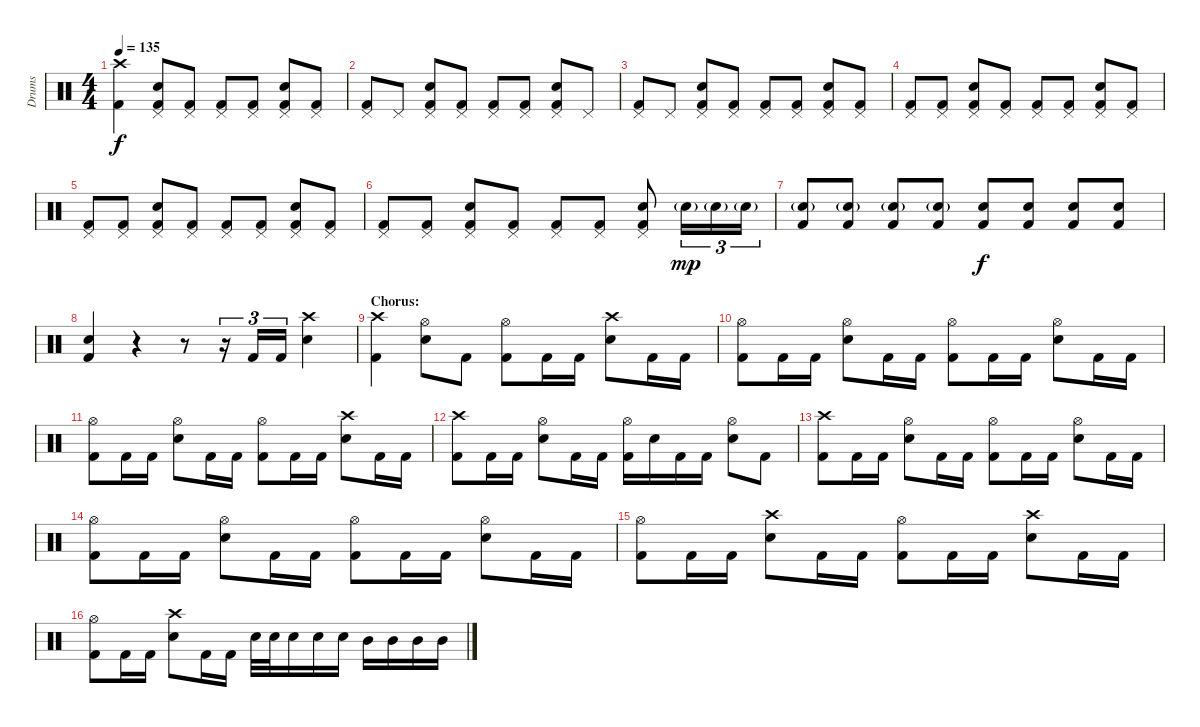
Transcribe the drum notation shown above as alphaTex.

\track ("Drums" "Drums") {instrument percussion}
\staff {score}
\articulation defaults
\ts (4 4)
\tempo 135
\clef neutral
\ks c
("Crash high (hit)" "Kick (hit) 2").4{dy f} ("Pedal Hi-Hat (hit)" "Electric Snare (hit)" "Kick (hit) 2").8 ("Pedal Hi-Hat (hit)" "Kick (hit) 2").8 ("Pedal Hi-Hat (hit)" "Kick (hit) 2").8 ("Pedal Hi-Hat (hit)" "Kick (hit) 2").8 ("Pedal Hi-Hat (hit)" "Electric Snare (hit)" "Kick (hit) 2").8 ("Pedal Hi-Hat (hit)" "Kick (hit) 2").8 |
("Pedal Hi-Hat (hit)" "Kick (hit) 2").8 "Pedal Hi-Hat (hit)".8 ("Pedal Hi-Hat (hit)" "Electric Snare (hit)" "Kick (hit) 2").8 ("Pedal Hi-Hat (hit)" "Kick (hit) 2").8 ("Pedal Hi-Hat (hit)" "Kick (hit) 2").8 ("Pedal Hi-Hat (hit)" "Kick (hit) 2").8 ("Pedal Hi-Hat (hit)" "Electric Snare (hit)" "Kick (hit) 2").8 "Pedal Hi-Hat (hit)".8 |
("Pedal Hi-Hat (hit)" "Kick (hit) 2").8 "Pedal Hi-Hat (hit)".8 ("Pedal Hi-Hat (hit)" "Electric Snare (hit)" "Kick (hit) 2").8 ("Pedal Hi-Hat (hit)" "Kick (hit) 2").8 ("Pedal Hi-Hat (hit)" "Kick (hit) 2").8 ("Pedal Hi-Hat (hit)" "Kick (hit) 2").8 ("Pedal Hi-Hat (hit)" "Electric Snare (hit)" "Kick (hit) 2").8 ("Pedal Hi-Hat (hit)" "Kick (hit) 2").8 |
("Pedal Hi-Hat (hit)" "Kick (hit) 2").8 ("Pedal Hi-Hat (hit)" "Kick (hit) 2").8 ("Pedal Hi-Hat (hit)" "Electric Snare (hit)" "Kick (hit) 2").8 ("Pedal Hi-Hat (hit)" "Kick (hit) 2").8 ("Pedal Hi-Hat (hit)" "Kick (hit) 2").8 ("Pedal Hi-Hat (hit)" "Kick (hit) 2").8 ("Pedal Hi-Hat (hit)" "Electric Snare (hit)" "Kick (hit) 2").8 ("Pedal Hi-Hat (hit)" "Kick (hit) 2").8 |
("Pedal Hi-Hat (hit)" "Kick (hit) 2").8 ("Pedal Hi-Hat (hit)" "Kick (hit) 2").8 ("Pedal Hi-Hat (hit)" "Electric Snare (hit)" "Kick (hit) 2").8 ("Pedal Hi-Hat (hit)" "Kick (hit) 2").8 ("Pedal Hi-Hat (hit)" "Kick (hit) 2").8 ("Pedal Hi-Hat (hit)" "Kick (hit) 2").8 ("Pedal Hi-Hat (hit)" "Electric Snare (hit)" "Kick (hit) 2").8 ("Pedal Hi-Hat (hit)" "Kick (hit) 2").8 |
("Pedal Hi-Hat (hit)" "Kick (hit) 2").8 ("Pedal Hi-Hat (hit)" "Kick (hit) 2").8 ("Pedal Hi-Hat (hit)" "Electric Snare (hit)" "Kick (hit) 2").8 ("Pedal Hi-Hat (hit)" "Kick (hit) 2").8 ("Pedal Hi-Hat (hit)" "Kick (hit) 2").8 ("Pedal Hi-Hat (hit)" "Kick (hit) 2").8 ("Pedal Hi-Hat (hit)" "Electric Snare (hit)" "Kick (hit) 2").8 "Electric Snare (hit)"{g}.16{tu (3 2) dy mp} "Electric Snare (hit)"{g}.16{tu (3 2)} "Electric Snare (hit)"{g}.16{tu (3 2)} |
("Electric Snare (hit)"{g} "Kick (hit) 2").8 ("Electric Snare (hit)"{g} "Kick (hit) 2").8 ("Electric Snare (hit)"{g} "Kick (hit) 2").8 ("Electric Snare (hit)"{g} "Kick (hit) 2").8 ("Electric Snare (hit)" "Kick (hit) 2").8{dy f} ("Electric Snare (hit)" "Kick (hit) 2").8 ("Electric Snare (hit)" "Kick (hit) 2").8 ("Electric Snare (hit)" "Kick (hit) 2").8 |
("Electric Snare (hit)" "Kick (hit) 2").4 r.4 r.8 r.16{tu (3 2)} "Kick (hit) 2".16{tu (3 2)} "Kick (hit) 2".16{tu (3 2)} ("Crash high (hit)" "Electric Snare (hit)").4 |
\section ("" "Chorus:")
("Crash high (hit)" "Kick (hit) 2").4 ("Hi-Hat (open)" "Electric Snare (hit)").8 "Kick (hit) 2".8 ("Hi-Hat (open)" "Kick (hit) 2").8 "Kick (hit) 2".16 "Kick (hit) 2".16 ("Crash high (hit)" "Electric Snare (hit)").8 "Kick (hit) 2".16 "Kick (hit) 2".16 |
("Hi-Hat (open)" "Kick (hit) 2").8 "Kick (hit) 2".16 "Kick (hit) 2".16 ("Hi-Hat (open)" "Electric Snare (hit)").8 "Kick (hit) 2".16 "Kick (hit) 2".16 ("Hi-Hat (open)" "Kick (hit) 2").8 "Kick (hit) 2".16 "Kick (hit) 2".16 ("Hi-Hat (open)" "Electric Snare (hit)").8 "Kick (hit) 2".16 "Kick (hit) 2".16 |
("Hi-Hat (open)" "Kick (hit) 2").8 "Kick (hit) 2".16 "Kick (hit) 2".16 ("Hi-Hat (open)" "Electric Snare (hit)").8 "Kick (hit) 2".16 "Kick (hit) 2".16 ("Hi-Hat (open)" "Kick (hit) 2").8 "Kick (hit) 2".16 "Kick (hit) 2".16 ("Crash high (hit)" "Electric Snare (hit)").8 "Kick (hit) 2".16 "Kick (hit) 2".16 |
("Crash high (hit)" "Kick (hit) 2").8 "Kick (hit) 2".16 "Kick (hit) 2".16 ("Hi-Hat (open)" "Electric Snare (hit)").8 "Kick (hit) 2".16 "Kick (hit) 2".16 ("Hi-Hat (open)" "Kick (hit) 2").16 "Electric Snare (hit)".16 "Kick (hit) 2".16 "Kick (hit) 2".16 ("Hi-Hat (open)" "Electric Snare (hit)").8 "Kick (hit) 2".8 |
("Crash high (hit)" "Kick (hit) 2").8 "Kick (hit) 2".16 "Kick (hit) 2".16 ("Hi-Hat (open)" "Electric Snare (hit)").8 "Kick (hit) 2".16 "Kick (hit) 2".16 ("Hi-Hat (open)" "Kick (hit) 2").8 "Kick (hit) 2".16 "Kick (hit) 2".16 ("Hi-Hat (open)" "Electric Snare (hit)").8 "Kick (hit) 2".16 "Kick (hit) 2".16 |
("Hi-Hat (open)" "Kick (hit) 2").8 "Kick (hit) 2".16 "Kick (hit) 2".16 ("Hi-Hat (open)" "Electric Snare (hit)").8 "Kick (hit) 2".16 "Kick (hit) 2".16 ("Hi-Hat (open)" "Kick (hit) 2").8 "Kick (hit) 2".16 "Kick (hit) 2".16 ("Hi-Hat (open)" "Electric Snare (hit)").8 "Kick (hit) 2".16 "Kick (hit) 2".16 |
("Hi-Hat (open)" "Kick (hit) 2").8 "Kick (hit) 2".16 "Kick (hit) 2".16 ("Crash high (hit)" "Electric Snare (hit)").8 "Kick (hit) 2".16 "Kick (hit) 2".16 ("Hi-Hat (open)" "Kick (hit) 2").8 "Kick (hit) 2".16 "Kick (hit) 2".16 ("Crash high (hit)" "Electric Snare (hit)").8 "Kick (hit) 2".16 "Kick (hit) 2".16 |
("Hi-Hat (open)" "Kick (hit) 2").8 "Kick (hit) 2".16 "Kick (hit) 2".16 ("Crash high (hit)" "Electric Snare (hit)").8 "Kick (hit) 2".16 "Kick (hit) 2".16 "Electric Snare (hit)".32 "Electric Snare (hit)".32 "Electric Snare (hit)".16 "Electric Snare (hit)".16 "Electric Snare (hit)".16 "Mid Tom (hit)".16 "Mid Tom (hit)".16 "Mid Tom (hit)".16 "Mid Tom (hit)".16
